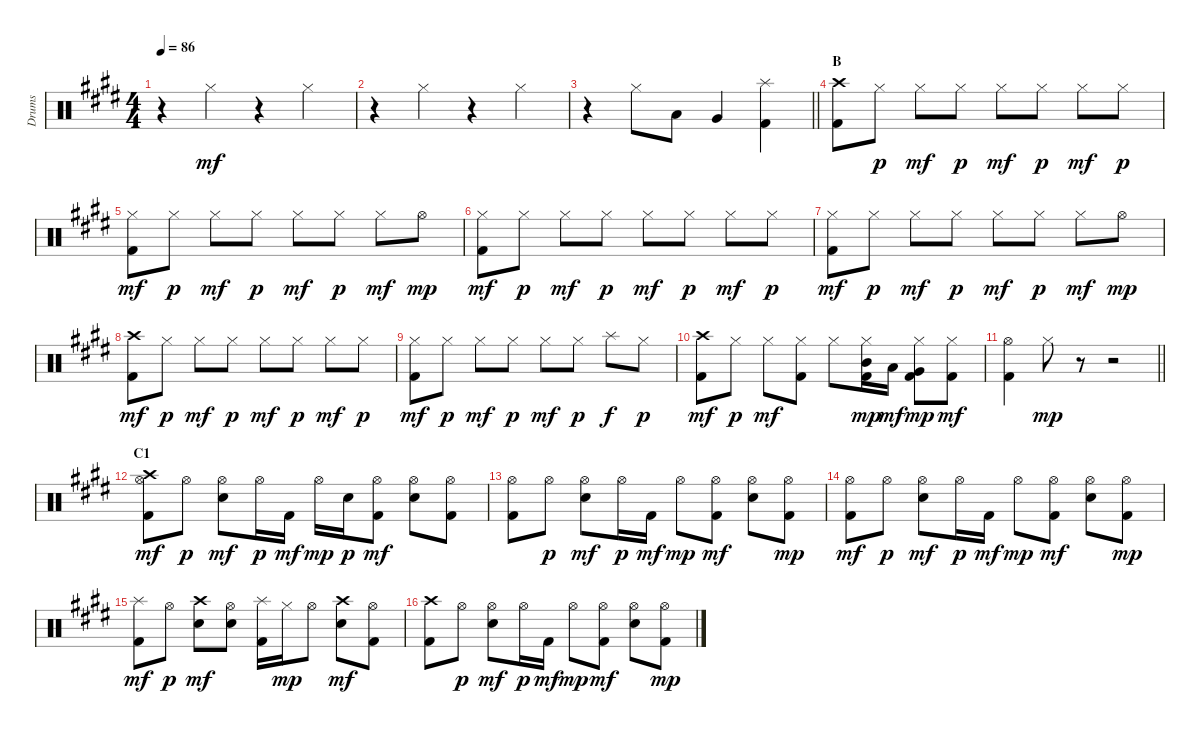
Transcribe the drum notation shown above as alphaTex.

\track ("Drums" "Drums") {instrument percussion}
\staff {score}
\articulation defaults
\ts (4 4)
\tempo 86
\clef neutral
\ks e
r.4{dy mf} "Hi-Hat (closed)".4 r.4 "Hi-Hat (closed)".4 |
r.4 "Hi-Hat (closed)".4 r.4 "Hi-Hat (closed)".4 |
\barLineRight lightlight
r.4 "Hi-Hat (closed)".8 "Low Tom (hit)".8 "Very Low Tom (hit)".4 ("Splash (hit)" "Kick (hit) 2").4 |
\section ("" "B")
("Crash high (hit)" "Kick (hit) 2").8 "Hi-Hat (closed)".8{dy p} "Hi-Hat (closed)".8{dy mf} "Hi-Hat (closed)".8{dy p} "Hi-Hat (closed)".8{dy mf} "Hi-Hat (closed)".8{dy p} "Hi-Hat (closed)".8{dy mf} "Hi-Hat (closed)".8{dy p} |
("Hi-Hat (closed)" "Kick (hit) 2").8{dy mf} "Hi-Hat (closed)".8{dy p} "Hi-Hat (closed)".8{dy mf} "Hi-Hat (closed)".8{dy p} "Hi-Hat (closed)".8{dy mf} "Hi-Hat (closed)".8{dy p} "Hi-Hat (closed)".8{dy mf} "Hi-Hat (open)".8{dy mp} |
("Hi-Hat (closed)" "Kick (hit) 2").8{dy mf} "Hi-Hat (closed)".8{dy p} "Hi-Hat (closed)".8{dy mf} "Hi-Hat (closed)".8{dy p} "Hi-Hat (closed)".8{dy mf} "Hi-Hat (closed)".8{dy p} "Hi-Hat (closed)".8{dy mf} "Hi-Hat (closed)".8{dy p} |
("Hi-Hat (closed)" "Kick (hit) 2").8{dy mf} "Hi-Hat (closed)".8{dy p} "Hi-Hat (closed)".8{dy mf} "Hi-Hat (closed)".8{dy p} "Hi-Hat (closed)".8{dy mf} "Hi-Hat (closed)".8{dy p} "Hi-Hat (closed)".8{dy mf} "Hi-Hat (open)".8{dy mp} |
("Crash high (hit)" "Kick (hit) 2").8{dy mf} "Hi-Hat (closed)".8{dy p} "Hi-Hat (closed)".8{dy mf} "Hi-Hat (closed)".8{dy p} "Hi-Hat (closed)".8{dy mf} "Hi-Hat (closed)".8{dy p} "Hi-Hat (closed)".8{dy mf} "Hi-Hat (closed)".8{dy p} |
("Hi-Hat (closed)" "Kick (hit) 2").8{dy mf} "Hi-Hat (closed)".8{dy p} "Hi-Hat (closed)".8{dy mf} "Hi-Hat (closed)".8{dy p} "Hi-Hat (closed)".8{dy mf} "Hi-Hat (closed)".8{dy p} "Splash (hit)".8{dy f} "Hi-Hat (closed)".8{dy p} |
("Crash high (hit)" "Kick (hit) 2").8{dy mf} "Hi-Hat (closed)".8{dy p} "Hi-Hat (closed)".8{dy mf} ("Hi-Hat (closed)" "Kick (hit) 2").8 "Hi-Hat (closed)".8 ("Hi-Hat (closed)" "Mid Tom (hit)" "Kick (hit) 2").16{dy mp} "Low Tom (hit)".16{dy mf} ("Hi-Hat (closed)" "Very Low Tom (hit)" "Kick (hit) 2").8{dy mp} ("Hi-Hat (closed)" "Kick (hit) 2").8{dy mf} |
\barLineRight lightlight
("Hi-Hat (open)" "Kick (hit) 2").4 "Hi-Hat (closed)".8{dy mp} r.8 r.2 |
\section ("" "C1")
("Crash high (hit)" "Hi-Hat (open)" "Kick (hit) 2").8{dy mf} "Hi-Hat (open)".8{dy p} ("Hi-Hat (open)" "Snare (hit) 2").8{dy mf} "Hi-Hat (open)".16{dy p} "Kick (hit) 2".16{dy mf} "Hi-Hat (open)".16{dy mp} "Snare (hit) 2".16{dy p} ("Hi-Hat (open)" "Kick (hit) 2").8{dy mf} ("Hi-Hat (open)" "Snare (hit) 2").8 ("Hi-Hat (open)" "Kick (hit) 2").8 |
("Hi-Hat (open)" "Kick (hit) 2").8 "Hi-Hat (open)".8{dy p} ("Hi-Hat (open)" "Snare (hit) 2").8{dy mf} "Hi-Hat (open)".16{dy p} "Kick (hit) 2".16{dy mf} "Hi-Hat (open)".8{dy mp} ("Hi-Hat (open)" "Kick (hit) 2").8{dy mf} ("Hi-Hat (open)" "Snare (hit) 2").8 ("Hi-Hat (open)" "Kick (hit) 2").8{dy mp} |
("Hi-Hat (open)" "Kick (hit) 2").8{dy mf} "Hi-Hat (open)".8{dy p} ("Hi-Hat (open)" "Snare (hit) 2").8{dy mf} "Hi-Hat (open)".16{dy p} "Kick (hit) 2".16{dy mf} "Hi-Hat (open)".8{dy mp} ("Hi-Hat (open)" "Kick (hit) 2").8{dy mf} ("Hi-Hat (open)" "Snare (hit) 2").8 ("Hi-Hat (open)" "Kick (hit) 2").8{dy mp} |
("Splash (hit)" "Kick (hit) 2").8{dy mf} "Hi-Hat (open)".8{dy p} ("Crash high (hit)" "Snare (hit) 2").8{dy mf} ("Hi-Hat (open)" "Snare (hit) 2").8 ("Splash (hit)" "Kick (hit) 2").16 "Hi-Hat (closed)".16{dy mp} "Hi-Hat (open)".8 ("Crash high (hit)" "Snare (hit) 2").8{dy mf} ("Hi-Hat (open)" "Kick (hit) 2").8 |
("Crash high (hit)" "Kick (hit) 2").8 "Hi-Hat (open)".8{dy p} ("Hi-Hat (open)" "Snare (hit) 2").8{dy mf} "Hi-Hat (open)".16{dy p} "Kick (hit) 2".16{dy mf} "Hi-Hat (open)".8{dy mp} ("Hi-Hat (open)" "Kick (hit) 2").8{dy mf} ("Hi-Hat (open)" "Snare (hit) 2").8 ("Hi-Hat (open)" "Kick (hit) 2").8{dy mp}
